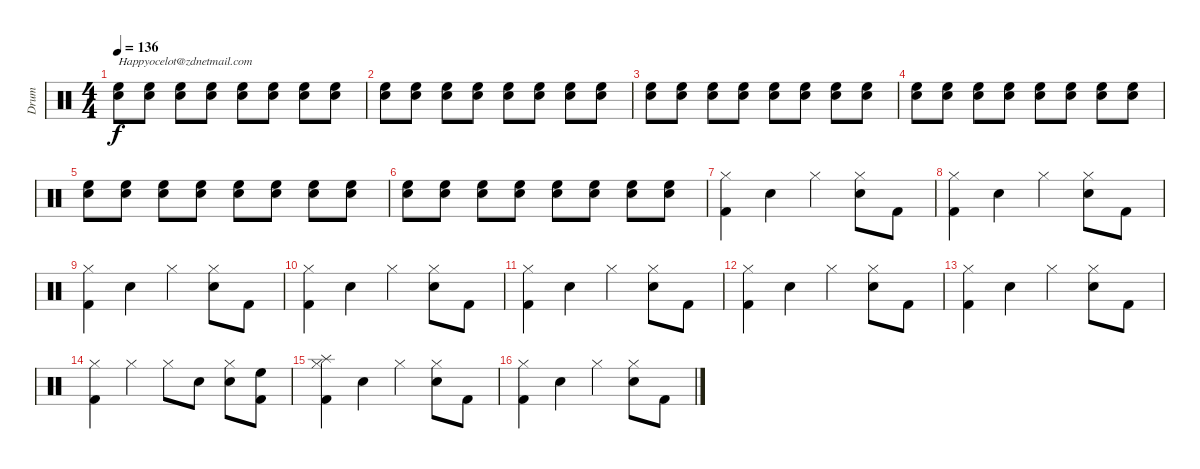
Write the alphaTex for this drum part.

\track ("Drum" "Drum") {instrument percussion}
\staff {score}
\articulation defaults
\ts (4 4)
\tempo 136
\clef neutral
\ks c
("High Floor Tom (hit)" "Snare (hit) 2").8{txt "Happyocelot@zdnetmail.com" dy f} ("High Floor Tom (hit)" "Snare (hit) 2").8 ("High Floor Tom (hit)" "Snare (hit) 2").8 ("High Floor Tom (hit)" "Snare (hit) 2").8 ("High Floor Tom (hit)" "Snare (hit) 2").8 ("High Floor Tom (hit)" "Snare (hit) 2").8 ("High Floor Tom (hit)" "Snare (hit) 2").8 ("High Floor Tom (hit)" "Snare (hit) 2").8 |
("High Floor Tom (hit)" "Snare (hit) 2").8 ("High Floor Tom (hit)" "Snare (hit) 2").8 ("High Floor Tom (hit)" "Snare (hit) 2").8 ("High Floor Tom (hit)" "Snare (hit) 2").8 ("High Floor Tom (hit)" "Snare (hit) 2").8 ("High Floor Tom (hit)" "Snare (hit) 2").8 ("High Floor Tom (hit)" "Snare (hit) 2").8 ("High Floor Tom (hit)" "Snare (hit) 2").8 |
("High Floor Tom (hit)" "Snare (hit) 2").8 ("High Floor Tom (hit)" "Snare (hit) 2").8 ("High Floor Tom (hit)" "Snare (hit) 2").8 ("High Floor Tom (hit)" "Snare (hit) 2").8 ("High Floor Tom (hit)" "Snare (hit) 2").8 ("High Floor Tom (hit)" "Snare (hit) 2").8 ("High Floor Tom (hit)" "Snare (hit) 2").8 ("High Floor Tom (hit)" "Snare (hit) 2").8 |
("High Floor Tom (hit)" "Snare (hit) 2").8 ("High Floor Tom (hit)" "Snare (hit) 2").8 ("High Floor Tom (hit)" "Snare (hit) 2").8 ("High Floor Tom (hit)" "Snare (hit) 2").8 ("High Floor Tom (hit)" "Snare (hit) 2").8 ("High Floor Tom (hit)" "Snare (hit) 2").8 ("High Floor Tom (hit)" "Snare (hit) 2").8 ("High Floor Tom (hit)" "Snare (hit) 2").8 |
("High Floor Tom (hit)" "Snare (hit) 2").8 ("High Floor Tom (hit)" "Snare (hit) 2").8 ("High Floor Tom (hit)" "Snare (hit) 2").8 ("High Floor Tom (hit)" "Snare (hit) 2").8 ("High Floor Tom (hit)" "Snare (hit) 2").8 ("High Floor Tom (hit)" "Snare (hit) 2").8 ("High Floor Tom (hit)" "Snare (hit) 2").8 ("High Floor Tom (hit)" "Snare (hit) 2").8 |
("High Floor Tom (hit)" "Snare (hit) 2").8 ("High Floor Tom (hit)" "Snare (hit) 2").8 ("High Floor Tom (hit)" "Snare (hit) 2").8 ("High Floor Tom (hit)" "Snare (hit) 2").8 ("High Floor Tom (hit)" "Snare (hit) 2").8 ("High Floor Tom (hit)" "Snare (hit) 2").8 ("High Floor Tom (hit)" "Snare (hit) 2").8 ("High Floor Tom (hit)" "Snare (hit) 2").8 |
("Hi-Hat (closed)" "Kick (hit) 2").4 "Snare (hit) 2".4 "Hi-Hat (closed)".4 ("Hi-Hat (closed)" "Snare (hit) 2").8 "Kick (hit) 2".8 |
("Hi-Hat (closed)" "Kick (hit) 2").4 "Snare (hit) 2".4 "Hi-Hat (closed)".4 ("Hi-Hat (closed)" "Snare (hit) 2").8 "Kick (hit) 2".8 |
("Hi-Hat (closed)" "Kick (hit) 2").4 "Snare (hit) 2".4 "Hi-Hat (closed)".4 ("Hi-Hat (closed)" "Snare (hit) 2").8 "Kick (hit) 2".8 |
("Hi-Hat (closed)" "Kick (hit) 2").4 "Snare (hit) 2".4 "Hi-Hat (closed)".4 ("Hi-Hat (closed)" "Snare (hit) 2").8 "Kick (hit) 2".8 |
("Hi-Hat (closed)" "Kick (hit) 2").4 "Snare (hit) 2".4 "Hi-Hat (closed)".4 ("Hi-Hat (closed)" "Snare (hit) 2").8 "Kick (hit) 2".8 |
("Hi-Hat (closed)" "Kick (hit) 2").4 "Snare (hit) 2".4 "Hi-Hat (closed)".4 ("Hi-Hat (closed)" "Snare (hit) 2").8 "Kick (hit) 2".8 |
("Hi-Hat (closed)" "Kick (hit) 2").4 "Snare (hit) 2".4 "Hi-Hat (closed)".4 ("Hi-Hat (closed)" "Snare (hit) 2").8 "Kick (hit) 2".8 |
("Hi-Hat (closed)" "Kick (hit) 2").4 "Hi-Hat (closed)".4 "Hi-Hat (closed)".8 "Snare (hit) 2".8 ("Hi-Hat (closed)" "Snare (hit) 2").8 ("Kick (hit) 2" "High Floor Tom (hit)").8 |
("Hi-Hat (closed)" "Kick (hit) 2" "Splash (hit)").4 "Snare (hit) 2".4 "Hi-Hat (closed)".4 ("Hi-Hat (closed)" "Snare (hit) 2").8 "Kick (hit) 2".8 |
("Hi-Hat (closed)" "Kick (hit) 2").4 "Snare (hit) 2".4 "Hi-Hat (closed)".4 ("Hi-Hat (closed)" "Snare (hit) 2").8 "Kick (hit) 2".8
